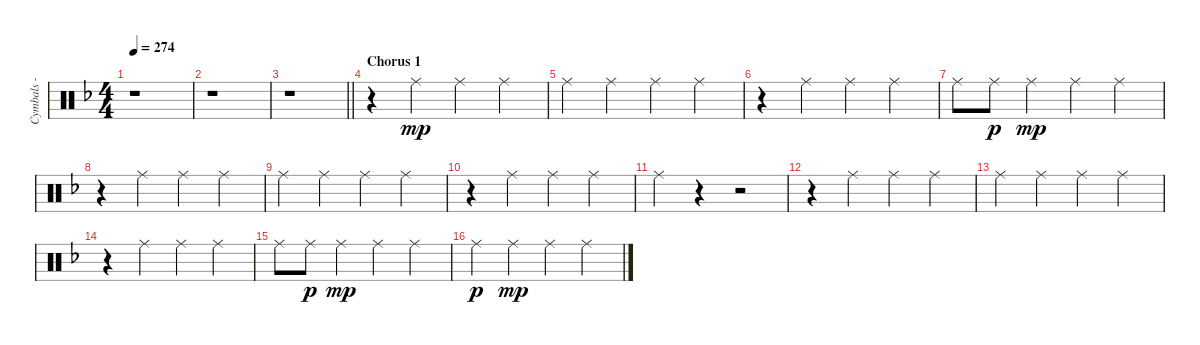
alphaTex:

\track ("Cymbals - ride" "Cymbals - ") {instrument percussion}
\staff {score}
\articulation defaults
\ts (4 4)
\tempo 274
\clef neutral
\ks dminor
r.1{dy mp} |
r.1 |
\barLineRight lightlight
r.1 |
\section ("" "Chorus 1")
r.4{volume 6} "Ride (middle)".4 "Ride (middle)".4 "Ride (middle)".4 |
"Ride (middle)".4 "Ride (middle)".4 "Ride (middle)".4 "Ride (middle)".4 |
r.4 "Ride (middle)".4 "Ride (middle)".4 "Ride (middle)".4 |
"Ride (middle)".8 "Ride (middle)".8{dy p} "Ride (middle)".4{dy mp} "Ride (middle)".4 "Ride (middle)".4 |
r.4 "Ride (middle)".4 "Ride (middle)".4 "Ride (middle)".4 |
"Ride (middle)".4 "Ride (middle)".4 "Ride (middle)".4 "Ride (middle)".4 |
r.4 "Ride (middle)".4 "Ride (middle)".4 "Ride (middle)".4 |
"Ride (middle)".4 r.4 r.2 |
r.4 "Ride (middle)".4 "Ride (middle)".4 "Ride (middle)".4 |
"Ride (middle)".4 "Ride (middle)".4 "Ride (middle)".4 "Ride (middle)".4 |
r.4 "Ride (middle)".4 "Ride (middle)".4 "Ride (middle)".4 |
"Ride (middle)".8 "Ride (middle)".8{dy p} "Ride (middle)".4{dy mp} "Ride (middle)".4 "Ride (middle)".4 |
"Ride (middle)".4{dy p} "Ride (middle)".4{dy mp} "Ride (middle)".4 "Ride (middle)".4
